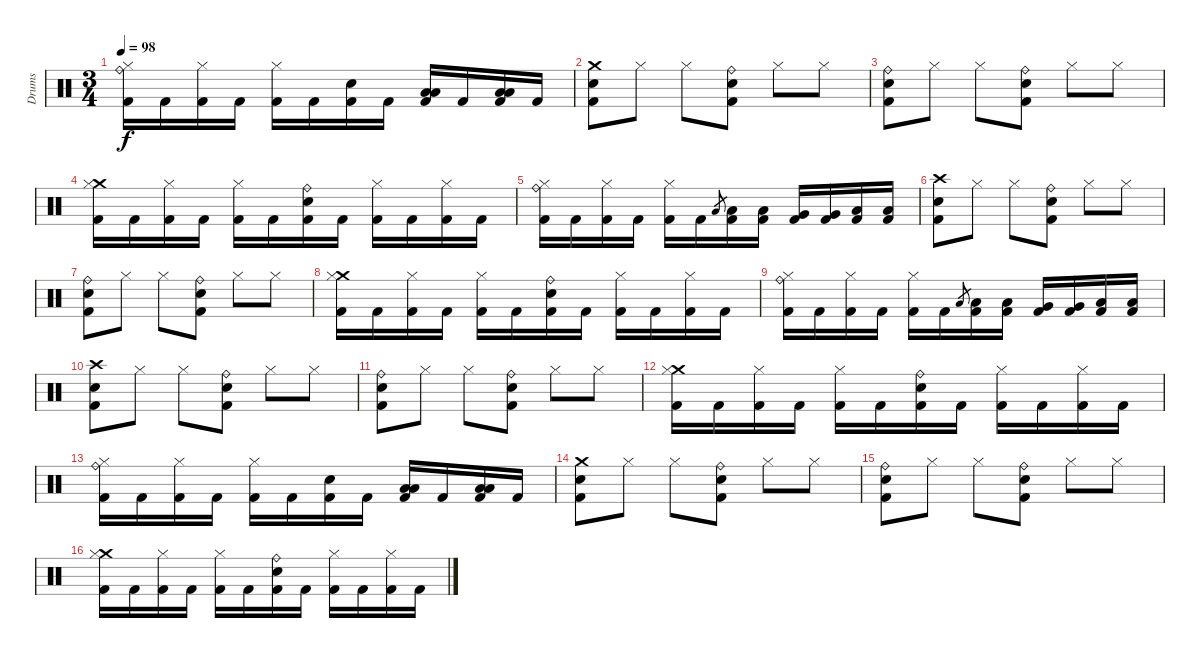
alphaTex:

\track ("Drums" "Drums") {instrument percussion}
\staff {score}
\articulation defaults
\ts (3 4)
\tempo 98
\clef neutral
\ks c
("Ride (bell)" "Hi-Hat (closed)" "Kick (hit) 2").16{dy f} "Kick (hit) 2".16 ("Hi-Hat (closed)" "Kick (hit) 2").16 "Kick (hit) 2".16 ("Hi-Hat (closed)" "Kick (hit) 2").16 "Kick (hit) 2".16 ("Electric Snare (hit)" "Kick (hit) 2").16 "Kick (hit) 2".16 ("Low Floor Tom (hit)" "Low Floor Tom (hit)" "Kick (hit) 2").16 "Kick (hit) 2".16 ("Low Floor Tom (hit)" "Low Floor Tom (hit)" "Kick (hit) 2").16 "Kick (hit) 2".16 |
("Crash medium (hit)" "Electric Snare (hit)" "Kick (hit) 2").8 "Hi-Hat (closed)".8 "Hi-Hat (closed)".8 ("Ride (bell)" "Electric Snare (hit)" "Kick (hit) 2").8 "Hi-Hat (closed)".8 "Hi-Hat (closed)".8 |
("Ride (bell)" "Electric Snare (hit)" "Kick (hit) 2").8 "Hi-Hat (closed)".8 "Hi-Hat (closed)".8 ("Ride (bell)" "Electric Snare (hit)" "Kick (hit) 2").8 "Hi-Hat (closed)".8 "Hi-Hat (closed)".8 |
("Crash medium (hit)" "Hi-Hat (closed)" "Kick (hit) 2").16 "Kick (hit) 2".16 ("Hi-Hat (closed)" "Kick (hit) 2").16 "Kick (hit) 2".16 ("Hi-Hat (closed)" "Kick (hit) 2").16 "Kick (hit) 2".16 ("Ride (bell)" "Electric Snare (hit)" "Kick (hit) 2").16 "Kick (hit) 2".16 ("Hi-Hat (closed)" "Kick (hit) 2").16 "Kick (hit) 2".16 ("Hi-Hat (closed)" "Kick (hit) 2").16 "Kick (hit) 2".16 |
("Ride (bell)" "Hi-Hat (closed)" "Kick (hit) 2").16 "Kick (hit) 2".16 ("Hi-Hat (closed)" "Kick (hit) 2").16 "Kick (hit) 2".16 ("Hi-Hat (closed)" "Kick (hit) 2").16 "Kick (hit) 2".16 "Low Floor Tom (hit)".8{gr} ("Low Floor Tom (hit)" "Kick (hit) 2").16 ("Low Floor Tom (hit)" "Kick (hit) 2").16 ("Very Low Tom (hit)" "Kick (hit) 2").16 ("Very Low Tom (hit)" "Kick (hit) 2").16 ("Low Tom (hit)" "Kick (hit) 2").16 ("Low Tom (hit)" "Kick (hit) 2").16 |
("Crash high (hit)" "Electric Snare (hit)" "Kick (hit) 2").8 "Hi-Hat (closed)".8 "Hi-Hat (closed)".8 ("Ride (bell)" "Electric Snare (hit)" "Kick (hit) 2").8 "Hi-Hat (closed)".8 "Hi-Hat (closed)".8 |
("Ride (bell)" "Electric Snare (hit)" "Kick (hit) 2").8 "Hi-Hat (closed)".8 "Hi-Hat (closed)".8 ("Ride (bell)" "Electric Snare (hit)" "Kick (hit) 2").8 "Hi-Hat (closed)".8 "Hi-Hat (closed)".8 |
("Crash medium (hit)" "Hi-Hat (closed)" "Kick (hit) 2").16 "Kick (hit) 2".16 ("Hi-Hat (closed)" "Kick (hit) 2").16 "Kick (hit) 2".16 ("Hi-Hat (closed)" "Kick (hit) 2").16 "Kick (hit) 2".16 ("Ride (bell)" "Electric Snare (hit)" "Kick (hit) 2").16 "Kick (hit) 2".16 ("Hi-Hat (closed)" "Kick (hit) 2").16 "Kick (hit) 2".16 ("Hi-Hat (closed)" "Kick (hit) 2").16 "Kick (hit) 2".16 |
("Ride (bell)" "Hi-Hat (closed)" "Kick (hit) 2").16 "Kick (hit) 2".16 ("Hi-Hat (closed)" "Kick (hit) 2").16 "Kick (hit) 2".16 ("Hi-Hat (closed)" "Kick (hit) 2").16 "Kick (hit) 2".16 "Low Floor Tom (hit)".8{gr} ("Low Floor Tom (hit)" "Kick (hit) 2").16 ("Low Floor Tom (hit)" "Kick (hit) 2").16 ("Very Low Tom (hit)" "Kick (hit) 2").16 ("Very Low Tom (hit)" "Kick (hit) 2").16 ("Low Tom (hit)" "Kick (hit) 2").16 ("Low Tom (hit)" "Kick (hit) 2").16 |
("Crash high (hit)" "Electric Snare (hit)" "Kick (hit) 2").8 "Hi-Hat (closed)".8 "Hi-Hat (closed)".8 ("Ride (bell)" "Electric Snare (hit)" "Kick (hit) 2").8 "Hi-Hat (closed)".8 "Hi-Hat (closed)".8 |
("Ride (bell)" "Electric Snare (hit)" "Kick (hit) 2").8 "Hi-Hat (closed)".8 "Hi-Hat (closed)".8 ("Ride (bell)" "Electric Snare (hit)" "Kick (hit) 2").8 "Hi-Hat (closed)".8 "Hi-Hat (closed)".8 |
("Crash medium (hit)" "Hi-Hat (closed)" "Kick (hit) 2").16 "Kick (hit) 2".16 ("Hi-Hat (closed)" "Kick (hit) 2").16 "Kick (hit) 2".16 ("Hi-Hat (closed)" "Kick (hit) 2").16 "Kick (hit) 2".16 ("Ride (bell)" "Electric Snare (hit)" "Kick (hit) 2").16 "Kick (hit) 2".16 ("Hi-Hat (closed)" "Kick (hit) 2").16 "Kick (hit) 2".16 ("Hi-Hat (closed)" "Kick (hit) 2").16 "Kick (hit) 2".16 |
("Ride (bell)" "Hi-Hat (closed)" "Kick (hit) 2").16 "Kick (hit) 2".16 ("Hi-Hat (closed)" "Kick (hit) 2").16 "Kick (hit) 2".16 ("Hi-Hat (closed)" "Kick (hit) 2").16 "Kick (hit) 2".16 ("Electric Snare (hit)" "Kick (hit) 2").16 "Kick (hit) 2".16 ("Low Floor Tom (hit)" "Low Floor Tom (hit)" "Kick (hit) 2").16 "Kick (hit) 2".16 ("Low Floor Tom (hit)" "Low Floor Tom (hit)" "Kick (hit) 2").16 "Kick (hit) 2".16 |
("Crash medium (hit)" "Electric Snare (hit)" "Kick (hit) 2").8 "Hi-Hat (closed)".8 "Hi-Hat (closed)".8 ("Ride (bell)" "Electric Snare (hit)" "Kick (hit) 2").8 "Hi-Hat (closed)".8 "Hi-Hat (closed)".8 |
("Ride (bell)" "Electric Snare (hit)" "Kick (hit) 2").8 "Hi-Hat (closed)".8 "Hi-Hat (closed)".8 ("Ride (bell)" "Electric Snare (hit)" "Kick (hit) 2").8 "Hi-Hat (closed)".8 "Hi-Hat (closed)".8 |
("Crash medium (hit)" "Hi-Hat (closed)" "Kick (hit) 2").16 "Kick (hit) 2".16 ("Hi-Hat (closed)" "Kick (hit) 2").16 "Kick (hit) 2".16 ("Hi-Hat (closed)" "Kick (hit) 2").16 "Kick (hit) 2".16 ("Ride (bell)" "Electric Snare (hit)" "Kick (hit) 2").16 "Kick (hit) 2".16 ("Hi-Hat (closed)" "Kick (hit) 2").16 "Kick (hit) 2".16 ("Hi-Hat (closed)" "Kick (hit) 2").16 "Kick (hit) 2".16
